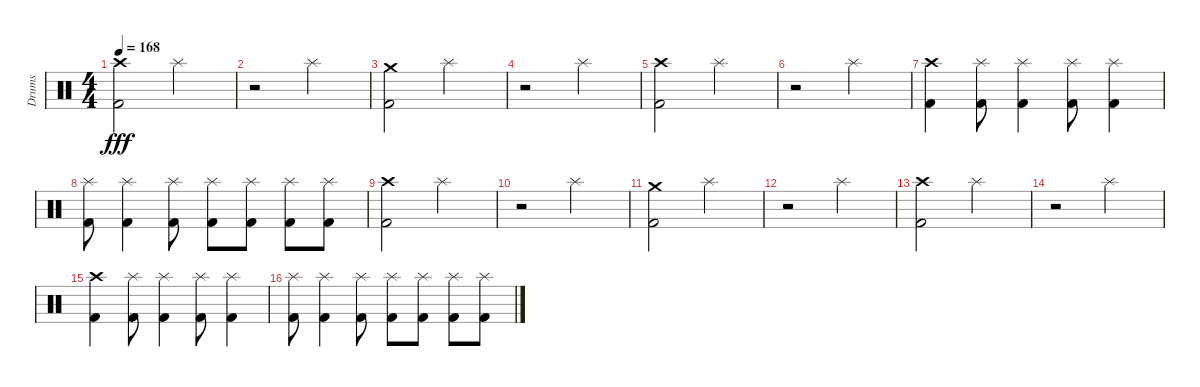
\track ("Drums" "Drums") {instrument percussion}
\staff {score}
\articulation defaults
\ts (4 4)
\tempo 168
\clef neutral
\ks c
("Crash high (hit)" "Kick (hit) 2").2{dy fff} "Splash (hit)".2 |
r.2 "Splash (hit)".2 |
("Crash medium (hit)" "Kick (hit) 2").2 "Splash (hit)".2 |
r.2 "Splash (hit)".2 |
("Crash high (hit)" "Kick (hit) 2").2 "Splash (hit)".2 |
r.2 "Splash (hit)".2 |
("Crash high (hit)" "Kick (hit) 2").4 ("Splash (hit)" "Kick (hit) 2").8 ("Splash (hit)" "Kick (hit) 2").4 ("Splash (hit)" "Kick (hit) 2").8 ("Splash (hit)" "Kick (hit) 2").4 |
("Splash (hit)" "Kick (hit) 2").8 ("Splash (hit)" "Kick (hit) 2").4 ("Splash (hit)" "Kick (hit) 2").8 ("Splash (hit)" "Kick (hit) 2").8 ("Splash (hit)" "Kick (hit) 2").8 ("Splash (hit)" "Kick (hit) 2").8 ("Splash (hit)" "Kick (hit) 2").8 |
("Crash high (hit)" "Kick (hit) 2").2 "Splash (hit)".2 |
r.2 "Splash (hit)".2 |
("Crash medium (hit)" "Kick (hit) 2").2 "Splash (hit)".2 |
r.2 "Splash (hit)".2 |
("Crash high (hit)" "Kick (hit) 2").2 "Splash (hit)".2 |
r.2 "Splash (hit)".2 |
("Crash high (hit)" "Kick (hit) 2").4 ("Splash (hit)" "Kick (hit) 2").8 ("Splash (hit)" "Kick (hit) 2").4 ("Splash (hit)" "Kick (hit) 2").8 ("Splash (hit)" "Kick (hit) 2").4 |
("Splash (hit)" "Kick (hit) 2").8 ("Splash (hit)" "Kick (hit) 2").4 ("Splash (hit)" "Kick (hit) 2").8 ("Splash (hit)" "Kick (hit) 2").8 ("Splash (hit)" "Kick (hit) 2").8 ("Splash (hit)" "Kick (hit) 2").8 ("Splash (hit)" "Kick (hit) 2").8
